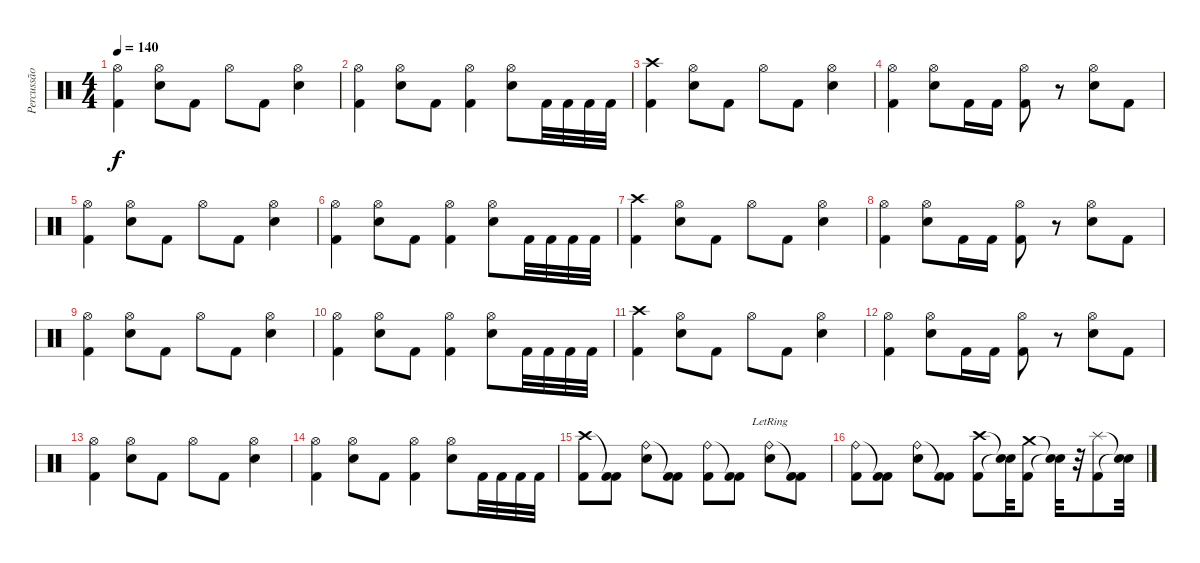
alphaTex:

\track ("Percussão" "Percussão") {instrument percussion}
\staff {score}
\articulation defaults
\ts (4 4)
\tempo 140
\clef neutral
\ks c
("Hi-Hat (open)" "Kick (hit) 2").4{dy f} ("Hi-Hat (open)" "Electric Snare (hit)").8 "Kick (hit) 2".8 "Hi-Hat (open)".8 "Kick (hit) 2".8 ("Hi-Hat (open)" "Electric Snare (hit)").4 |
("Hi-Hat (open)" "Kick (hit) 2").4 ("Hi-Hat (open)" "Electric Snare (hit)").8 "Kick (hit) 2".8 ("Hi-Hat (open)" "Kick (hit) 2").4 ("Hi-Hat (open)" "Electric Snare (hit)").8 "Kick (hit) 2".32 "Kick (hit) 2".32 "Kick (hit) 2".32 "Kick (hit) 2".32 |
("Crash high (hit)" "Kick (hit) 2").4 ("Hi-Hat (open)" "Electric Snare (hit)").8 "Kick (hit) 2".8 "Hi-Hat (open)".8 "Kick (hit) 2".8 ("Hi-Hat (open)" "Electric Snare (hit)").4 |
("Hi-Hat (open)" "Kick (hit) 2").4 ("Hi-Hat (open)" "Electric Snare (hit)").8 "Kick (hit) 2".16 "Kick (hit) 2".16 ("Hi-Hat (open)" "Kick (hit) 2").8 r.8 ("Hi-Hat (open)" "Electric Snare (hit)").8 "Kick (hit) 2".8 |
("Hi-Hat (open)" "Kick (hit) 2").4 ("Hi-Hat (open)" "Electric Snare (hit)").8 "Kick (hit) 2".8 "Hi-Hat (open)".8 "Kick (hit) 2".8 ("Hi-Hat (open)" "Electric Snare (hit)").4 |
("Hi-Hat (open)" "Kick (hit) 2").4 ("Hi-Hat (open)" "Electric Snare (hit)").8 "Kick (hit) 2".8 ("Hi-Hat (open)" "Kick (hit) 2").4 ("Hi-Hat (open)" "Electric Snare (hit)").8 "Kick (hit) 2".32 "Kick (hit) 2".32 "Kick (hit) 2".32 "Kick (hit) 2".32 |
("Crash high (hit)" "Kick (hit) 2").4 ("Hi-Hat (open)" "Electric Snare (hit)").8 "Kick (hit) 2".8 "Hi-Hat (open)".8 "Kick (hit) 2".8 ("Hi-Hat (open)" "Electric Snare (hit)").4 |
("Hi-Hat (open)" "Kick (hit) 2").4 ("Hi-Hat (open)" "Electric Snare (hit)").8 "Kick (hit) 2".16 "Kick (hit) 2".16 ("Hi-Hat (open)" "Kick (hit) 2").8 r.8 ("Hi-Hat (open)" "Electric Snare (hit)").8 "Kick (hit) 2".8 |
("Hi-Hat (open)" "Kick (hit) 2").4 ("Hi-Hat (open)" "Electric Snare (hit)").8 "Kick (hit) 2".8 "Hi-Hat (open)".8 "Kick (hit) 2".8 ("Hi-Hat (open)" "Electric Snare (hit)").4 |
("Hi-Hat (open)" "Kick (hit) 2").4 ("Hi-Hat (open)" "Electric Snare (hit)").8 "Kick (hit) 2".8 ("Hi-Hat (open)" "Kick (hit) 2").4 ("Hi-Hat (open)" "Electric Snare (hit)").8 "Kick (hit) 2".32 "Kick (hit) 2".32 "Kick (hit) 2".32 "Kick (hit) 2".32 |
("Crash high (hit)" "Kick (hit) 2").4 ("Hi-Hat (open)" "Electric Snare (hit)").8 "Kick (hit) 2".8 "Hi-Hat (open)".8 "Kick (hit) 2".8 ("Hi-Hat (open)" "Electric Snare (hit)").4 |
("Hi-Hat (open)" "Kick (hit) 2").4 ("Hi-Hat (open)" "Electric Snare (hit)").8 "Kick (hit) 2".16 "Kick (hit) 2".16 ("Hi-Hat (open)" "Kick (hit) 2").8 r.8 ("Hi-Hat (open)" "Electric Snare (hit)").8 "Kick (hit) 2".8 |
("Hi-Hat (open)" "Kick (hit) 2").4 ("Hi-Hat (open)" "Electric Snare (hit)").8 "Kick (hit) 2".8 "Hi-Hat (open)".8 "Kick (hit) 2".8 ("Hi-Hat (open)" "Electric Snare (hit)").4 |
("Hi-Hat (open)" "Kick (hit) 2").4 ("Hi-Hat (open)" "Electric Snare (hit)").8 "Kick (hit) 2".8 ("Hi-Hat (open)" "Kick (hit) 2").4 ("Hi-Hat (open)" "Electric Snare (hit)").8 "Kick (hit) 2".32 "Kick (hit) 2".32 "Kick (hit) 2".32 "Kick (hit) 2".32 |
("Crash high (hit)" "Kick (hit) 2").8 ("Kick (hit) 2"{t} "Kick (hit) 2").8 ("Ride (bell)" "Electric Snare (hit)").8 ("Kick (hit) 2"{t} "Kick (hit) 2").8 ("Ride (bell)" "Kick (hit) 2").8 ("Kick (hit) 2"{t} "Kick (hit) 2").8 ("Ride (bell)"{lr} "Electric Snare (hit)").8 ("Kick (hit) 2"{t} "Kick (hit) 2").8 |
("Ride (bell)" "Kick (hit) 2").8 ("Kick (hit) 2"{t} "Kick (hit) 2").8 ("Ride (bell)" "Electric Snare (hit)").8 ("Kick (hit) 2"{t} "Kick (hit) 2").8 ("Crash high (hit)" "Kick (hit) 2").8 ("Snare (hit)"{t} "Snare (hit)"{t}).32 ("Crash medium (hit)" "Kick (hit) 2").8 ("Snare (hit)"{t} "Snare (hit)"{t}).32 r.32 ("Splash (hit)" "Kick (hit) 2").8 ("Snare (hit)"{t} "Snare (hit)"{t}).32
